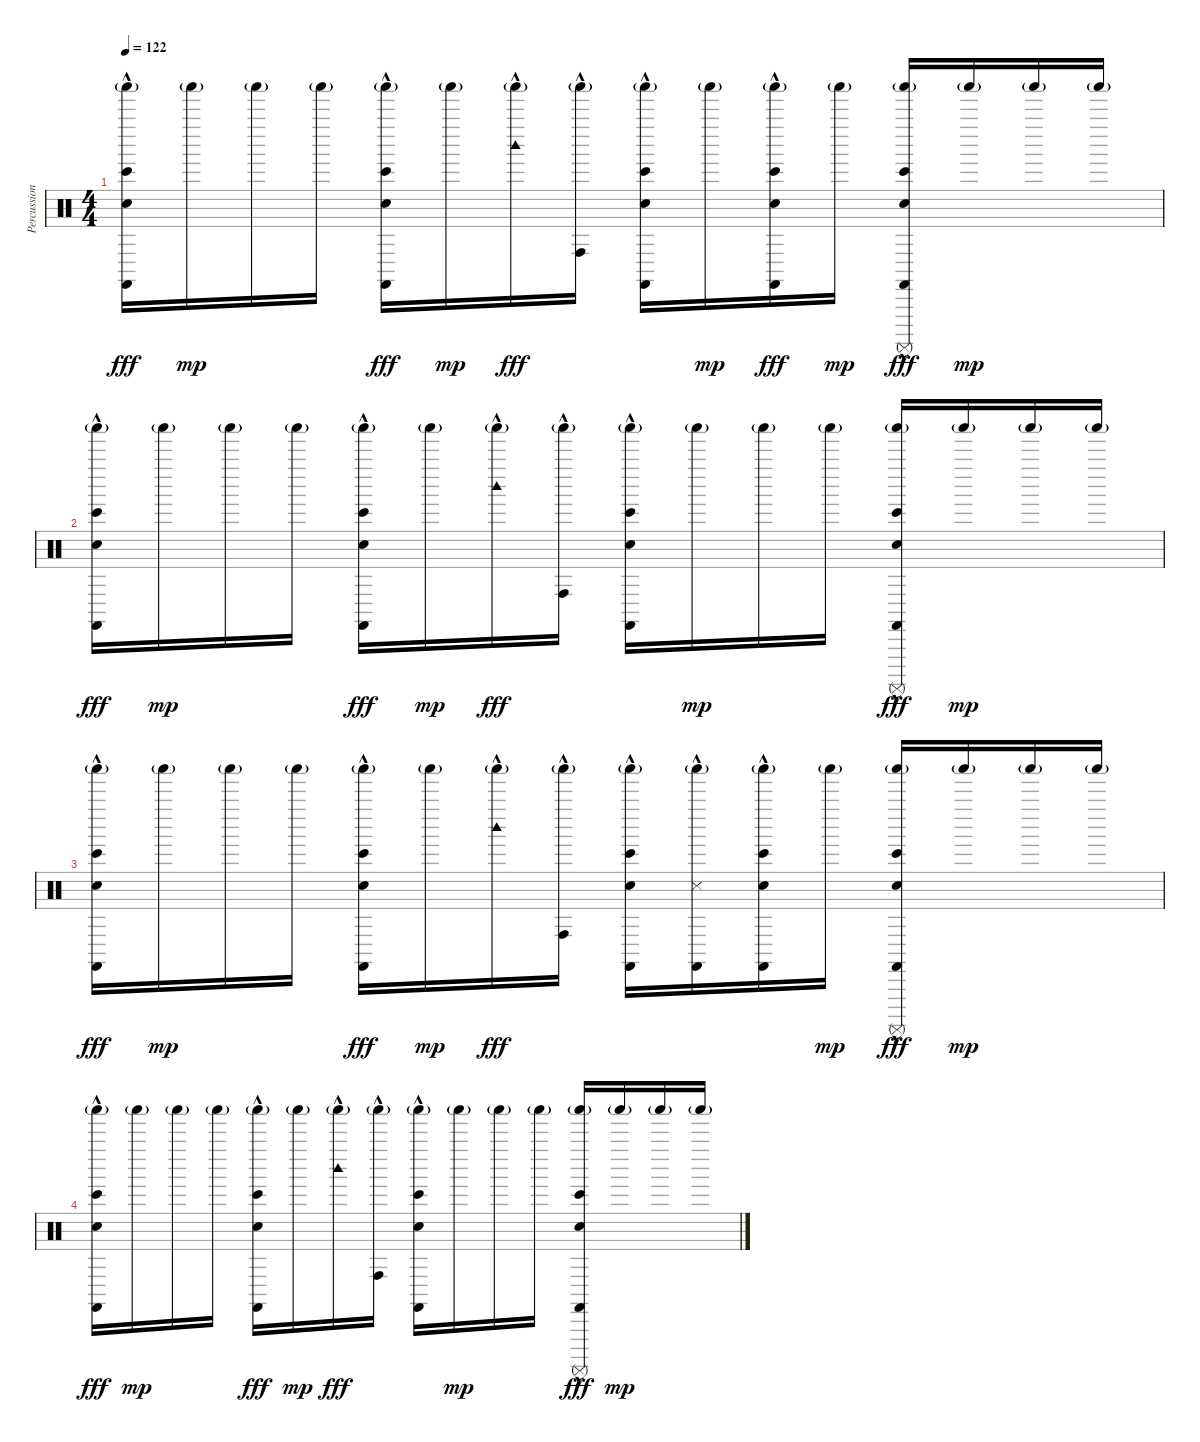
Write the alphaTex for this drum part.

\track ("Percussion" "Percussion") {instrument percussion}
\staff {score}
\articulation defaults
\ts (4 4)
\tempo 122
\clef neutral
\ks c
("Bongo High (hit)"{hac} "Castanets (hit)"{hac} "Shaker (hit)"{g} "Hand Clap (hit)"{hac}).16{dy fff} "Shaker (hit)"{g}.16{dy mp} "Shaker (hit)"{g}.16 "Shaker (hit)"{g}.16 ("Bongo High (hit)"{hac} "Castanets (hit)"{hac} "Shaker (hit)"{g} "Hand Clap (hit)"{hac}).16{dy fff} "Shaker (hit)"{g}.16{dy mp} ("Shaker (hit)"{g} "Woodblock high (hit)"{hac}).16{dy fff} ("Shaker (hit)"{g} "Conga high (hit)"{hac}).16 ("Bongo High (hit)"{hac} "Castanets (hit)"{hac} "Shaker (hit)"{g} "Hand Clap (hit)"{hac}).16 "Shaker (hit)"{g}.16{dy mp} ("Bongo High (hit)"{hac} "Castanets (hit)"{hac} "Shaker (hit)"{g} "Hand Clap (hit)"{hac}).16{dy fff} "Shaker (hit)"{g}.16{dy mp} ("Bongo High (hit)"{hac} "Castanets (hit)"{hac} "Shaker (hit)"{g} "Hand Clap (hit)"{hac} "Surdo (mute)"{hac}).16{dy fff} "Shaker (hit)"{g}.16{dy mp} "Shaker (hit)"{g}.16 "Shaker (hit)"{g}.16 |
("Bongo High (hit)"{hac} "Castanets (hit)"{hac} "Shaker (hit)"{g} "Hand Clap (hit)"{hac}).16{dy fff} "Shaker (hit)"{g}.16{dy mp} "Shaker (hit)"{g}.16 "Shaker (hit)"{g}.16 ("Bongo High (hit)"{hac} "Castanets (hit)"{hac} "Shaker (hit)"{g} "Hand Clap (hit)"{hac}).16{dy fff} "Shaker (hit)"{g}.16{dy mp} ("Shaker (hit)"{g} "Woodblock high (hit)"{hac}).16{dy fff} ("Shaker (hit)"{g} "Conga high (hit)"{hac}).16 ("Bongo High (hit)"{hac} "Castanets (hit)"{hac} "Shaker (hit)"{g} "Hand Clap (hit)"{hac}).16 "Shaker (hit)"{g}.16{dy mp} "Shaker (hit)"{g}.16 "Shaker (hit)"{g}.16 ("Bongo High (hit)"{hac} "Castanets (hit)"{hac} "Shaker (hit)"{g} "Hand Clap (hit)"{hac} "Surdo (mute)"{hac}).16{dy fff} "Shaker (hit)"{g}.16{dy mp} "Shaker (hit)"{g}.16 "Shaker (hit)"{g}.16 |
("Bongo High (hit)"{hac} "Castanets (hit)"{hac} "Shaker (hit)"{g} "Hand Clap (hit)"{hac}).16{dy fff} "Shaker (hit)"{g}.16{dy mp} "Shaker (hit)"{g}.16 "Shaker (hit)"{g}.16 ("Bongo High (hit)"{hac} "Castanets (hit)"{hac} "Shaker (hit)"{g} "Hand Clap (hit)"{hac}).16{dy fff} "Shaker (hit)"{g}.16{dy mp} ("Shaker (hit)"{g} "Woodblock high (hit)"{hac}).16{dy fff} ("Shaker (hit)"{g} "Conga high (hit)"{hac}).16 ("Bongo High (hit)"{hac} "Castanets (hit)"{hac} "Shaker (hit)"{g} "Hand Clap (hit)"{hac}).16 ("Shaker (hit)"{g} "Snare (side stick) 3"{hac} "Castanets (hit)"{hac}).16 ("Bongo High (hit)"{hac} "Castanets (hit)"{hac} "Shaker (hit)"{g} "Hand Clap (hit)"{hac}).16 "Shaker (hit)"{g}.16{dy mp} ("Bongo High (hit)"{hac} "Castanets (hit)"{hac} "Shaker (hit)"{g} "Hand Clap (hit)"{hac} "Surdo (mute)"{hac}).16{dy fff} "Shaker (hit)"{g}.16{dy mp} "Shaker (hit)"{g}.16 "Shaker (hit)"{g}.16 |
("Bongo High (hit)"{hac} "Castanets (hit)" "Shaker (hit)"{g} "Hand Clap (hit)"{hac}).16{dy fff} "Shaker (hit)"{g}.16{dy mp} "Shaker (hit)"{g}.16 "Shaker (hit)"{g}.16 ("Bongo High (hit)"{hac} "Castanets (hit)"{hac} "Shaker (hit)"{g} "Hand Clap (hit)"{hac}).16{dy fff} "Shaker (hit)"{g}.16{dy mp} ("Shaker (hit)"{g} "Woodblock high (hit)"{hac}).16{dy fff} ("Shaker (hit)"{g} "Conga high (hit)"{hac}).16 ("Bongo High (hit)"{hac} "Castanets (hit)"{hac} "Shaker (hit)"{g} "Hand Clap (hit)"{hac}).16 "Shaker (hit)"{g}.16{dy mp} "Shaker (hit)"{g}.16 "Shaker (hit)"{g}.16 ("Bongo High (hit)"{hac} "Castanets (hit)"{hac} "Shaker (hit)"{g} "Hand Clap (hit)"{hac} "Surdo (mute)"{hac}).16{dy fff} "Shaker (hit)"{g}.16{dy mp} "Shaker (hit)"{g}.16 "Shaker (hit)"{g}.16
